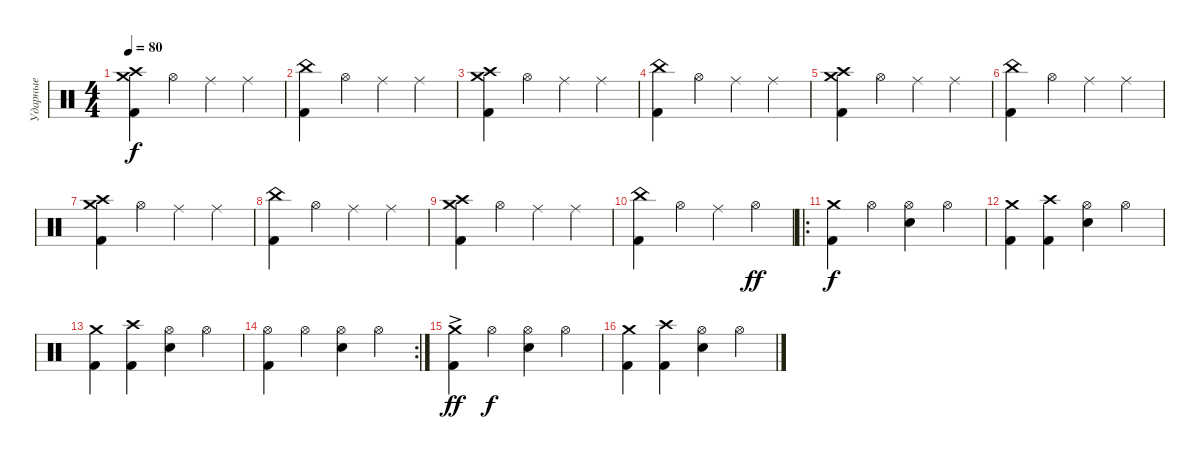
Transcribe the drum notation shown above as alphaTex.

\track ("Ударные" "Ударные") {instrument percussion}
\staff {score}
\articulation defaults
\ts (4 4)
\tempo 80
\clef neutral
\ks c
("Crash medium (hit)" "Crash high (hit)" "Kick (hit) 2").4{dy f} "Hi-Hat (open)".4 "Ride (middle)".4 "Ride (middle)".4 |
("China (hit)" "Kick (hit) 2").4 "Hi-Hat (open)".4 "Ride (middle)".4 "Ride (middle)".4 |
("Crash medium (hit)" "Crash high (hit)" "Kick (hit) 2").4 "Hi-Hat (open)".4 "Ride (middle)".4 "Ride (middle)".4 |
("China (hit)" "Kick (hit) 2").4 "Hi-Hat (open)".4 "Ride (middle)".4 "Ride (middle)".4 |
("Crash medium (hit)" "Crash high (hit)" "Kick (hit) 2").4 "Hi-Hat (open)".4 "Ride (middle)".4 "Ride (middle)".4 |
("China (hit)" "Kick (hit) 2").4 "Hi-Hat (open)".4 "Ride (middle)".4 "Ride (middle)".4 |
("Crash medium (hit)" "Crash high (hit)" "Kick (hit) 2").4 "Hi-Hat (open)".4 "Ride (middle)".4 "Ride (middle)".4 |
("China (hit)" "Kick (hit) 2").4 "Hi-Hat (open)".4 "Ride (middle)".4 "Ride (middle)".4 |
("Crash medium (hit)" "Crash high (hit)" "Kick (hit) 2").4 "Hi-Hat (open)".4 "Ride (middle)".4 "Ride (middle)".4 |
("China (hit)" "Kick (hit) 2").4 "Hi-Hat (open)".4 "Ride (middle)".4 "Hi-Hat (open)".4{dy ff} |
\ro
("Crash medium (hit)" "Kick (hit) 2").4{dy f} "Hi-Hat (open)".4 ("Hi-Hat (open)" "Electric Snare (hit)").4 "Hi-Hat (open)".4 |
("Crash medium (hit)" "Kick (hit) 2").4 ("Crash high (hit)" "Kick (hit) 2").4 ("Hi-Hat (open)" "Electric Snare (hit)").4 "Hi-Hat (open)".4 |
("Crash medium (hit)" "Kick (hit) 2").4 ("Crash high (hit)" "Kick (hit) 2").4 ("Hi-Hat (open)" "Electric Snare (hit)").4 "Hi-Hat (open)".4 |
\rc 2
("Hi-Hat (open)" "Kick (hit) 2").4 "Hi-Hat (open)".4 ("Hi-Hat (open)" "Electric Snare (hit)").4 "Hi-Hat (open)".4 |
("Crash medium (hit)" "Kick (hit) 2"{ac}).4{dy ff} "Hi-Hat (open)".4{dy f} ("Hi-Hat (open)" "Electric Snare (hit)").4 "Hi-Hat (open)".4 |
("Crash medium (hit)" "Kick (hit) 2").4 ("Crash high (hit)" "Kick (hit) 2").4 ("Hi-Hat (open)" "Electric Snare (hit)").4 "Hi-Hat (open)".4
